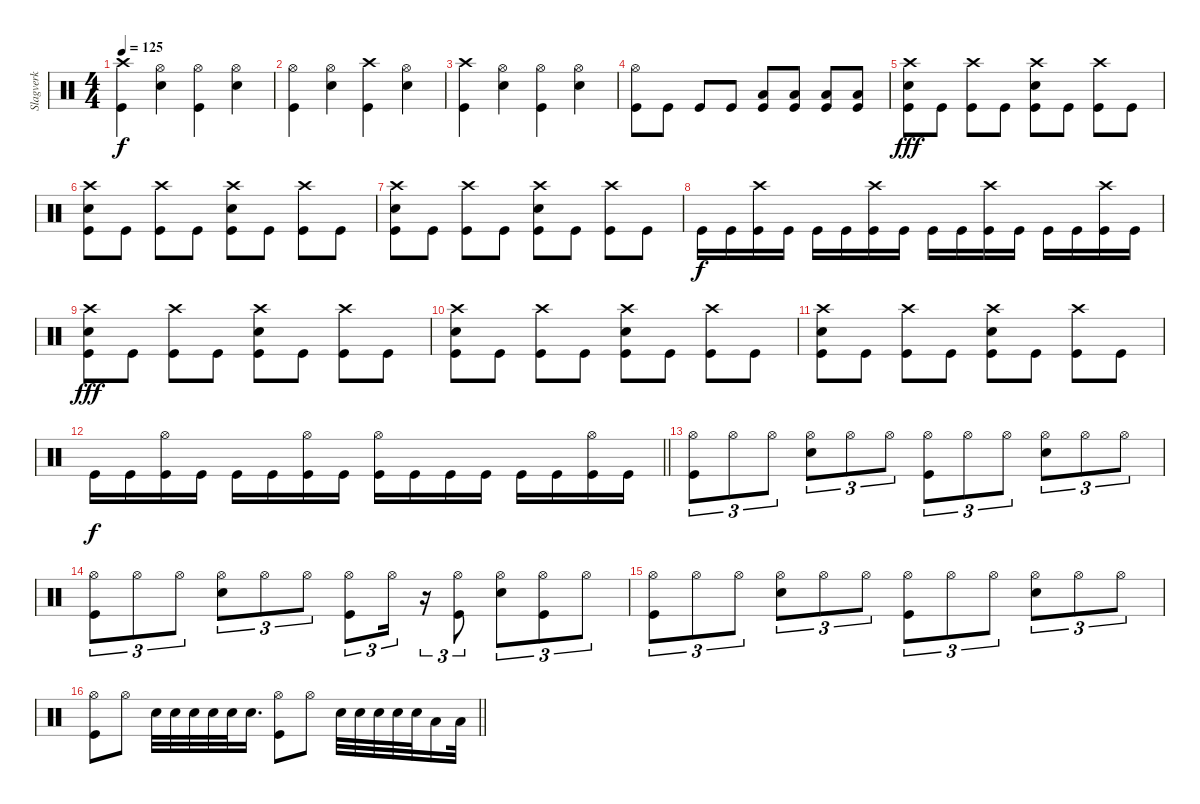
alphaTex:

\track ("Slagverk" "Slagverk") {instrument percussion}
\staff {score}
\articulation defaults
\ts (4 4)
\tempo 125
\clef neutral
\ks c
("Crash high (hit)" "Kick (hit)").4{dy f} ("Hi-Hat (open)" "Snare (hit) 2").4 ("Hi-Hat (open)" "Kick (hit)").4 ("Hi-Hat (open)" "Snare (hit) 2").4 |
("Hi-Hat (open)" "Kick (hit)").4 ("Hi-Hat (open)" "Snare (hit) 2").4 ("Crash high (hit)" "Kick (hit)").4 ("Hi-Hat (open)" "Snare (hit) 2").4 |
("Crash high (hit)" "Kick (hit)").4 ("Hi-Hat (open)" "Snare (hit) 2").4 ("Hi-Hat (open)" "Kick (hit)").4 ("Hi-Hat (open)" "Snare (hit) 2").4 |
("Hi-Hat (open)" "Kick (hit)").8 "Kick (hit)".8 "Kick (hit)".8 "Kick (hit)".8 ("Low Floor Tom (hit)" "Kick (hit)").8 ("Low Floor Tom (hit)" "Kick (hit)").8 ("Low Floor Tom (hit)" "Kick (hit)").8 ("Low Floor Tom (hit)" "Kick (hit)").8 |
("Crash high (hit)" "Snare (hit) 2" "Kick (hit)").8{dy fff} "Kick (hit)".8 ("Crash high (hit)" "Kick (hit)").8 "Kick (hit)".8 ("Crash high (hit)" "Snare (hit) 2" "Kick (hit)").8 "Kick (hit)".8 ("Crash high (hit)" "Kick (hit)").8 "Kick (hit)".8 |
("Crash high (hit)" "Snare (hit) 2" "Kick (hit)").8 "Kick (hit)".8 ("Crash high (hit)" "Kick (hit)").8 "Kick (hit)".8 ("Crash high (hit)" "Snare (hit) 2" "Kick (hit)").8 "Kick (hit)".8 ("Crash high (hit)" "Kick (hit)").8 "Kick (hit)".8 |
("Crash high (hit)" "Snare (hit) 2" "Kick (hit)").8 "Kick (hit)".8 ("Crash high (hit)" "Kick (hit)").8 "Kick (hit)".8 ("Crash high (hit)" "Snare (hit) 2" "Kick (hit)").8 "Kick (hit)".8 ("Crash high (hit)" "Kick (hit)").8 "Kick (hit)".8 |
"Kick (hit)".16{dy f} "Kick (hit)".16 ("Crash high (hit)" "Kick (hit)").16 "Kick (hit)".16 "Kick (hit)".16 "Kick (hit)".16 ("Crash high (hit)" "Kick (hit)").16 "Kick (hit)".16 "Kick (hit)".16 "Kick (hit)".16 ("Crash high (hit)" "Kick (hit)").16 "Kick (hit)".16 "Kick (hit)".16 "Kick (hit)".16 ("Crash high (hit)" "Kick (hit)").16 "Kick (hit)".16 |
("Crash high (hit)" "Snare (hit) 2" "Kick (hit)").8{dy fff} "Kick (hit)".8 ("Crash high (hit)" "Kick (hit)").8 "Kick (hit)".8 ("Crash high (hit)" "Snare (hit) 2" "Kick (hit)").8 "Kick (hit)".8 ("Crash high (hit)" "Kick (hit)").8 "Kick (hit)".8 |
("Crash high (hit)" "Snare (hit) 2" "Kick (hit)").8 "Kick (hit)".8 ("Crash high (hit)" "Kick (hit)").8 "Kick (hit)".8 ("Crash high (hit)" "Snare (hit) 2" "Kick (hit)").8 "Kick (hit)".8 ("Crash high (hit)" "Kick (hit)").8 "Kick (hit)".8 |
("Crash high (hit)" "Snare (hit) 2" "Kick (hit)").8 "Kick (hit)".8 ("Crash high (hit)" "Kick (hit)").8 "Kick (hit)".8 ("Crash high (hit)" "Snare (hit) 2" "Kick (hit)").8 "Kick (hit)".8 ("Crash high (hit)" "Kick (hit)").8 "Kick (hit)".8 |
\barLineRight lightlight "Kick (hit)".16{dy f} "Kick (hit)".16
("Hi-Hat (open)" "Kick (hit)").16 "Kick (hit)".16 "Kick (hit)".16 "Kick (hit)".16 ("Hi-Hat (open)" "Kick (hit)").16 "Kick (hit)".16 ("Hi-Hat (open)" "Kick (hit)").16 "Kick (hit)".16 "Kick (hit)".16 "Kick (hit)".16 "Kick (hit)".16 "Kick (hit)".16 ("Hi-Hat (open)" "Kick (hit)").16 "Kick (hit)".16 |
("Hi-Hat (open)" "Kick (hit)").8{tu (3 2)} "Hi-Hat (open)".8{tu (3 2)} "Hi-Hat (open)".8{tu (3 2)} ("Hi-Hat (open)" "Snare (hit) 2").8{tu (3 2)} "Hi-Hat (open)".8{tu (3 2)} "Hi-Hat (open)".8{tu (3 2)} ("Hi-Hat (open)" "Kick (hit)").8{tu (3 2)} "Hi-Hat (open)".8{tu (3 2)} "Hi-Hat (open)".8{tu (3 2)} ("Hi-Hat (open)" "Snare (hit) 2").8{tu (3 2)} "Hi-Hat (open)".8{tu (3 2)} "Hi-Hat (open)".8{tu (3 2)} |
("Hi-Hat (open)" "Kick (hit)").8{tu (3 2)} "Hi-Hat (open)".8{tu (3 2)} "Hi-Hat (open)".8{tu (3 2)} ("Hi-Hat (open)" "Snare (hit) 2").8{tu (3 2)} "Hi-Hat (open)".8{tu (3 2)} "Hi-Hat (open)".8{tu (3 2)} ("Hi-Hat (open)" "Kick (hit)").8{tu (3 2)} "Hi-Hat (open)".16{tu (3 2)} r.16{tu (3 2)} ("Hi-Hat (open)" "Kick (hit)").8{tu (3 2)} ("Hi-Hat (open)" "Snare (hit) 2").8{tu (3 2)} ("Hi-Hat (open)" "Kick (hit)").8{tu (3 2)} "Hi-Hat (open)".8{tu (3 2)} |
("Hi-Hat (open)" "Kick (hit)").8{tu (3 2)} "Hi-Hat (open)".8{tu (3 2)} "Hi-Hat (open)".8{tu (3 2)} ("Hi-Hat (open)" "Snare (hit) 2").8{tu (3 2)} "Hi-Hat (open)".8{tu (3 2)} "Hi-Hat (open)".8{tu (3 2)} ("Hi-Hat (open)" "Kick (hit)").8{tu (3 2)} "Hi-Hat (open)".8{tu (3 2)} "Hi-Hat (open)".8{tu (3 2)} ("Hi-Hat (open)" "Snare (hit) 2").8{tu (3 2)} "Hi-Hat (open)".8{tu (3 2)} "Hi-Hat (open)".8{tu (3 2)} |
\barLineRight lightlight
("Hi-Hat (open)" "Kick (hit)").8 "Hi-Hat (open)".8 "Snare (hit) 2".32 "Snare (hit) 2".32 "Snare (hit) 2".32 "Snare (hit) 2".32 "Snare (hit) 2".32 "Snare (hit) 2".16{d} ("Hi-Hat (open)" "Kick (hit)").8 "Hi-Hat (open)".8 "Snare (hit) 2".32 "Snare (hit) 2".32 "Snare (hit) 2".32 "Snare (hit) 2".32 "Snare (hit) 2".32 "Low Floor Tom (hit)".16 "Low Floor Tom (hit)".32
